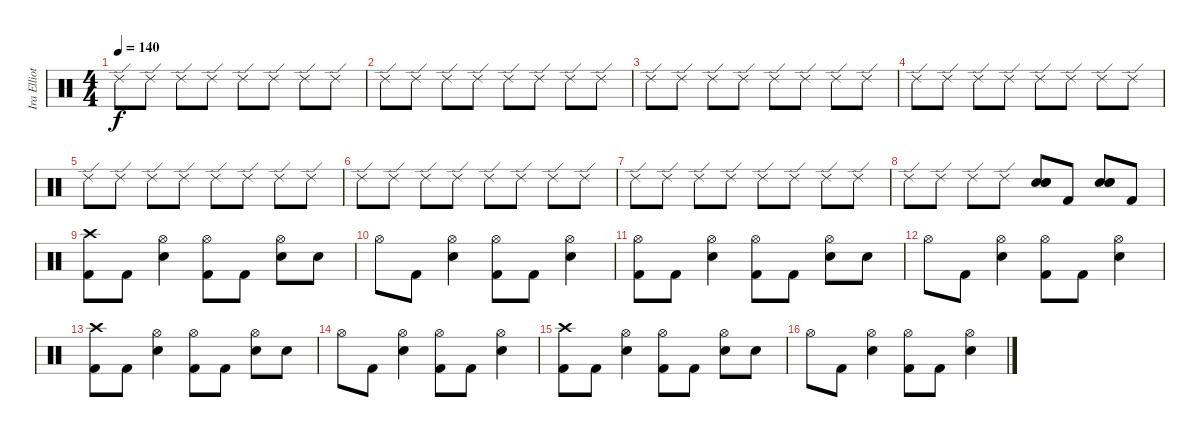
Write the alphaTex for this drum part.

\track ("Ira Elliott" "Ira Elliot") {instrument percussion}
\staff {score}
\articulation defaults
\ts (4 4)
\tempo 140
\clef neutral
\ks c "Ride (edge) 2".8{dy f} "Ride (edge) 2".8 "Ride (edge) 2".8 "Ride (edge) 2".8 "Ride (edge) 2".8 "Ride (edge) 2".8 "Ride (edge) 2".8 "Ride (edge) 2".8
|
"Ride (edge) 2".8 "Ride (edge) 2".8 "Ride (edge) 2".8 "Ride (edge) 2".8 "Ride (edge) 2".8 "Ride (edge) 2".8 "Ride (edge) 2".8 "Ride (edge) 2".8 |
"Ride (edge) 2".8 "Ride (edge) 2".8 "Ride (edge) 2".8 "Ride (edge) 2".8 "Ride (edge) 2".8 "Ride (edge) 2".8 "Ride (edge) 2".8 "Ride (edge) 2".8 |
"Ride (edge) 2".8 "Ride (edge) 2".8 "Ride (edge) 2".8 "Ride (edge) 2".8 "Ride (edge) 2".8 "Ride (edge) 2".8 "Ride (edge) 2".8 "Ride (edge) 2".8 |
"Ride (edge) 2".8 "Ride (edge) 2".8 "Ride (edge) 2".8 "Ride (edge) 2".8 "Ride (edge) 2".8 "Ride (edge) 2".8 "Ride (edge) 2".8 "Ride (edge) 2".8 |
"Ride (edge) 2".8 "Ride (edge) 2".8 "Ride (edge) 2".8 "Ride (edge) 2".8 "Ride (edge) 2".8 "Ride (edge) 2".8 "Ride (edge) 2".8 "Ride (edge) 2".8 |
"Ride (edge) 2".8 "Ride (edge) 2".8 "Ride (edge) 2".8 "Ride (edge) 2".8 "Ride (edge) 2".8 "Ride (edge) 2".8 "Ride (edge) 2".8 "Ride (edge) 2".8 |
"Ride (edge) 2".8 "Ride (edge) 2".8 "Ride (edge) 2".8 "Ride (edge) 2".8 ("Electric Snare (hit)" "Electric Snare (hit)" "Electric Snare (hit)").8 "Kick (hit) 2".8 ("Electric Snare (hit)" "Electric Snare (hit)" "Electric Snare (hit)").8 "Kick (hit) 2".8 |
("Crash high (hit)" "Kick (hit) 2").8 "Kick (hit) 2".8 ("Hi-Hat (open)" "Electric Snare (hit)").4 ("Hi-Hat (open)" "Kick (hit) 2").8 "Kick (hit) 2".8 ("Hi-Hat (open)" "Electric Snare (hit)").8 "Electric Snare (hit)".8 |
"Hi-Hat (open)".8 "Kick (hit) 2".8 ("Hi-Hat (open)" "Electric Snare (hit)").4 ("Hi-Hat (open)" "Kick (hit) 2").8 "Kick (hit) 2".8 ("Hi-Hat (open)" "Electric Snare (hit)").4 |
("Hi-Hat (open)" "Kick (hit) 2").8 "Kick (hit) 2".8 ("Hi-Hat (open)" "Electric Snare (hit)").4 ("Hi-Hat (open)" "Kick (hit) 2").8 "Kick (hit) 2".8 ("Hi-Hat (open)" "Electric Snare (hit)").8 "Electric Snare (hit)".8 |
"Hi-Hat (open)".8 "Kick (hit) 2".8 ("Hi-Hat (open)" "Electric Snare (hit)").4 ("Hi-Hat (open)" "Kick (hit) 2").8 "Kick (hit) 2".8 ("Hi-Hat (open)" "Electric Snare (hit)").4 |
("Crash high (hit)" "Kick (hit) 2").8 "Kick (hit) 2".8 ("Hi-Hat (open)" "Electric Snare (hit)").4 ("Hi-Hat (open)" "Kick (hit) 2").8 "Kick (hit) 2".8 ("Hi-Hat (open)" "Electric Snare (hit)").8 "Electric Snare (hit)".8 |
"Hi-Hat (open)".8 "Kick (hit) 2".8 ("Hi-Hat (open)" "Electric Snare (hit)").4 ("Hi-Hat (open)" "Kick (hit) 2").8 "Kick (hit) 2".8 ("Hi-Hat (open)" "Electric Snare (hit)").4 |
("Crash high (hit)" "Kick (hit) 2").8 "Kick (hit) 2".8 ("Hi-Hat (open)" "Electric Snare (hit)").4 ("Hi-Hat (open)" "Kick (hit) 2").8 "Kick (hit) 2".8 ("Hi-Hat (open)" "Electric Snare (hit)").8 "Electric Snare (hit)".8 |
"Hi-Hat (open)".8 "Kick (hit) 2".8 ("Hi-Hat (open)" "Electric Snare (hit)").4 ("Hi-Hat (open)" "Kick (hit) 2").8 "Kick (hit) 2".8 ("Hi-Hat (open)" "Electric Snare (hit)").4
